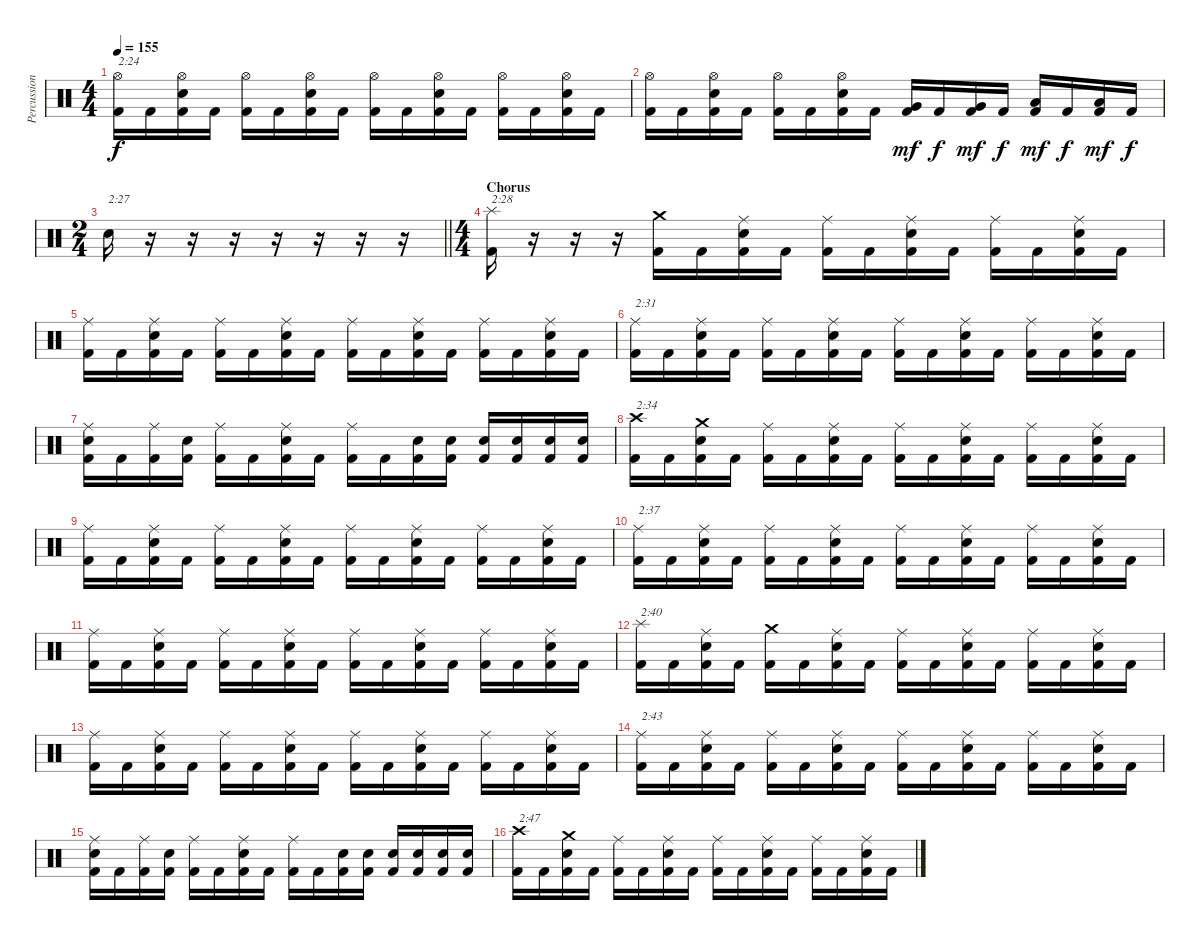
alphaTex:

\track ("Percussion" "Percussion") {instrument percussion}
\staff {score}
\articulation defaults
\ts (4 4)
\tempo 155
\clef neutral
\ks c
("Hi-Hat (open)" "Kick (hit) 2").16{txt "2:24" dy f} "Kick (hit) 2".16 ("Hi-Hat (open)" "Electric Snare (hit)" "Kick (hit) 2").16 "Kick (hit) 2".16 ("Hi-Hat (open)" "Kick (hit) 2").16 "Kick (hit) 2".16 ("Hi-Hat (open)" "Electric Snare (hit)" "Kick (hit) 2").16 "Kick (hit) 2".16 ("Hi-Hat (open)" "Kick (hit) 2").16 "Kick (hit) 2".16 ("Hi-Hat (open)" "Electric Snare (hit)" "Kick (hit) 2").16 "Kick (hit) 2".16 ("Hi-Hat (open)" "Kick (hit) 2").16 "Kick (hit) 2".16 ("Hi-Hat (open)" "Electric Snare (hit)" "Kick (hit) 2").16 "Kick (hit) 2".16 |
("Hi-Hat (open)" "Kick (hit) 2").16 "Kick (hit) 2".16 ("Hi-Hat (open)" "Electric Snare (hit)" "Kick (hit) 2").16 "Kick (hit) 2".16 ("Hi-Hat (open)" "Kick (hit) 2").16 "Kick (hit) 2".16 ("Hi-Hat (open)" "Electric Snare (hit)" "Kick (hit) 2").16 "Kick (hit) 2".16 ("Very Low Tom (hit)" "Kick (hit) 2").16{dy mf} "Kick (hit) 2".16{dy f} ("Very Low Tom (hit)" "Kick (hit) 2").16{dy mf} "Kick (hit) 2".16{dy f} ("Low Floor Tom (hit)" "Kick (hit) 2").16{dy mf} "Kick (hit) 2".16{dy f} ("Low Floor Tom (hit)" "Kick (hit) 2").16{dy mf} "Kick (hit) 2".16{dy f} |
\ts (2 4)
\barLineRight lightlight "Electric Snare (hit)".16{txt "2:27"}
r.16 r.16 r.16 r.16 r.16 r.16 r.16 |
\ts (4 4)
\section ("" "Chorus")
("Splash (hit)" "Kick (hit) 2").16{txt "2:28"} r.16 r.16 r.16 ("Crash medium (hit)" "Kick (hit) 2").16 "Kick (hit) 2".16 ("Ride (middle)" "Electric Snare (hit)" "Kick (hit) 2").16 "Kick (hit) 2".16 ("Ride (middle)" "Kick (hit) 2").16 "Kick (hit) 2".16 ("Ride (middle)" "Electric Snare (hit)" "Kick (hit) 2").16 "Kick (hit) 2".16 ("Ride (middle)" "Kick (hit) 2").16 "Kick (hit) 2".16 ("Ride (middle)" "Electric Snare (hit)" "Kick (hit) 2").16 "Kick (hit) 2".16 |
("Ride (middle)" "Kick (hit) 2").16 "Kick (hit) 2".16 ("Ride (middle)" "Electric Snare (hit)" "Kick (hit) 2").16 "Kick (hit) 2".16 ("Ride (middle)" "Kick (hit) 2").16 "Kick (hit) 2".16 ("Ride (middle)" "Electric Snare (hit)" "Kick (hit) 2").16 "Kick (hit) 2".16 ("Ride (middle)" "Kick (hit) 2").16 "Kick (hit) 2".16 ("Ride (middle)" "Electric Snare (hit)" "Kick (hit) 2").16 "Kick (hit) 2".16 ("Ride (middle)" "Kick (hit) 2").16 "Kick (hit) 2".16 ("Ride (middle)" "Electric Snare (hit)" "Kick (hit) 2").16 "Kick (hit) 2".16 |
("Ride (middle)" "Kick (hit) 2").16{txt "2:31"} "Kick (hit) 2".16 ("Ride (middle)" "Electric Snare (hit)" "Kick (hit) 2").16 "Kick (hit) 2".16 ("Ride (middle)" "Kick (hit) 2").16 "Kick (hit) 2".16 ("Ride (middle)" "Electric Snare (hit)" "Kick (hit) 2").16 "Kick (hit) 2".16 ("Ride (middle)" "Kick (hit) 2").16 "Kick (hit) 2".16 ("Ride (middle)" "Electric Snare (hit)" "Kick (hit) 2").16 "Kick (hit) 2".16 ("Ride (middle)" "Kick (hit) 2").16 "Kick (hit) 2".16 ("Ride (middle)" "Electric Snare (hit)" "Kick (hit) 2").16 "Kick (hit) 2".16 |
("Ride (middle)" "Electric Snare (hit)" "Kick (hit) 2").16 "Kick (hit) 2".16 ("Ride (middle)" "Kick (hit) 2").16 ("Electric Snare (hit)" "Kick (hit) 2").16 ("Ride (middle)" "Kick (hit) 2").16 "Kick (hit) 2".16 ("Ride (middle)" "Electric Snare (hit)" "Kick (hit) 2").16 "Kick (hit) 2".16 ("Ride (middle)" "Kick (hit) 2").16 "Kick (hit) 2".16 ("Electric Snare (hit)" "Kick (hit) 2").16 ("Electric Snare (hit)" "Kick (hit) 2").16 ("Electric Snare (hit)" "Kick (hit) 2").16 ("Electric Snare (hit)" "Kick (hit) 2").16 ("Electric Snare (hit)" "Kick (hit) 2").16 ("Electric Snare (hit)" "Kick (hit) 2").16 |
("Crash high (hit)" "Kick (hit) 2").16{txt "2:34"} "Kick (hit) 2".16 ("Crash medium (hit)" "Electric Snare (hit)" "Kick (hit) 2").16 "Kick (hit) 2".16 ("Ride (middle)" "Kick (hit) 2").16 "Kick (hit) 2".16 ("Ride (middle)" "Electric Snare (hit)" "Kick (hit) 2").16 "Kick (hit) 2".16 ("Ride (middle)" "Kick (hit) 2").16 "Kick (hit) 2".16 ("Ride (middle)" "Electric Snare (hit)" "Kick (hit) 2").16 "Kick (hit) 2".16 ("Ride (middle)" "Kick (hit) 2").16 "Kick (hit) 2".16 ("Ride (middle)" "Electric Snare (hit)" "Kick (hit) 2").16 "Kick (hit) 2".16 |
("Ride (middle)" "Kick (hit) 2").16 "Kick (hit) 2".16 ("Ride (middle)" "Electric Snare (hit)" "Kick (hit) 2").16 "Kick (hit) 2".16 ("Ride (middle)" "Kick (hit) 2").16 "Kick (hit) 2".16 ("Ride (middle)" "Electric Snare (hit)" "Kick (hit) 2").16 "Kick (hit) 2".16 ("Ride (middle)" "Kick (hit) 2").16 "Kick (hit) 2".16 ("Ride (middle)" "Electric Snare (hit)" "Kick (hit) 2").16 "Kick (hit) 2".16 ("Ride (middle)" "Kick (hit) 2").16 "Kick (hit) 2".16 ("Ride (middle)" "Electric Snare (hit)" "Kick (hit) 2").16 "Kick (hit) 2".16 |
("Ride (middle)" "Kick (hit) 2").16{txt "2:37"} "Kick (hit) 2".16 ("Ride (middle)" "Electric Snare (hit)" "Kick (hit) 2").16 "Kick (hit) 2".16 ("Ride (middle)" "Kick (hit) 2").16 "Kick (hit) 2".16 ("Ride (middle)" "Electric Snare (hit)" "Kick (hit) 2").16 "Kick (hit) 2".16 ("Ride (middle)" "Kick (hit) 2").16 "Kick (hit) 2".16 ("Ride (middle)" "Electric Snare (hit)" "Kick (hit) 2").16 "Kick (hit) 2".16 ("Ride (middle)" "Kick (hit) 2").16 "Kick (hit) 2".16 ("Ride (middle)" "Electric Snare (hit)" "Kick (hit) 2").16 "Kick (hit) 2".16 |
("Ride (middle)" "Kick (hit) 2").16 "Kick (hit) 2".16 ("Ride (middle)" "Electric Snare (hit)" "Kick (hit) 2").16 "Kick (hit) 2".16 ("Ride (middle)" "Kick (hit) 2").16 "Kick (hit) 2".16 ("Ride (middle)" "Electric Snare (hit)" "Kick (hit) 2").16 "Kick (hit) 2".16 ("Ride (middle)" "Kick (hit) 2").16 "Kick (hit) 2".16 ("Ride (middle)" "Electric Snare (hit)" "Kick (hit) 2").16 "Kick (hit) 2".16 ("Ride (middle)" "Kick (hit) 2").16 "Kick (hit) 2".16 ("Ride (middle)" "Electric Snare (hit)" "Kick (hit) 2").16 "Kick (hit) 2".16 |
("Splash (hit)" "Kick (hit) 2").16{txt "2:40"} "Kick (hit) 2".16 ("Ride (middle)" "Electric Snare (hit)" "Kick (hit) 2").16 "Kick (hit) 2".16 ("Crash medium (hit)" "Kick (hit) 2").16 "Kick (hit) 2".16 ("Ride (middle)" "Electric Snare (hit)" "Kick (hit) 2").16 "Kick (hit) 2".16 ("Ride (middle)" "Kick (hit) 2").16 "Kick (hit) 2".16 ("Ride (middle)" "Electric Snare (hit)" "Kick (hit) 2").16 "Kick (hit) 2".16 ("Ride (middle)" "Kick (hit) 2").16 "Kick (hit) 2".16 ("Ride (middle)" "Electric Snare (hit)" "Kick (hit) 2").16 "Kick (hit) 2".16 |
("Ride (middle)" "Kick (hit) 2").16 "Kick (hit) 2".16 ("Ride (middle)" "Electric Snare (hit)" "Kick (hit) 2").16 "Kick (hit) 2".16 ("Ride (middle)" "Kick (hit) 2").16 "Kick (hit) 2".16 ("Ride (middle)" "Electric Snare (hit)" "Kick (hit) 2").16 "Kick (hit) 2".16 ("Ride (middle)" "Kick (hit) 2").16 "Kick (hit) 2".16 ("Ride (middle)" "Electric Snare (hit)" "Kick (hit) 2").16 "Kick (hit) 2".16 ("Ride (middle)" "Kick (hit) 2").16 "Kick (hit) 2".16 ("Ride (middle)" "Electric Snare (hit)" "Kick (hit) 2").16 "Kick (hit) 2".16 |
("Ride (middle)" "Kick (hit) 2").16{txt "2:43"} "Kick (hit) 2".16 ("Ride (middle)" "Electric Snare (hit)" "Kick (hit) 2").16 "Kick (hit) 2".16 ("Ride (middle)" "Kick (hit) 2").16 "Kick (hit) 2".16 ("Ride (middle)" "Electric Snare (hit)" "Kick (hit) 2").16 "Kick (hit) 2".16 ("Ride (middle)" "Kick (hit) 2").16 "Kick (hit) 2".16 ("Ride (middle)" "Electric Snare (hit)" "Kick (hit) 2").16 "Kick (hit) 2".16 ("Ride (middle)" "Kick (hit) 2").16 "Kick (hit) 2".16 ("Ride (middle)" "Electric Snare (hit)" "Kick (hit) 2").16 "Kick (hit) 2".16 |
("Ride (middle)" "Electric Snare (hit)" "Kick (hit) 2").16 "Kick (hit) 2".16 ("Ride (middle)" "Kick (hit) 2").16 ("Electric Snare (hit)" "Kick (hit) 2").16 ("Ride (middle)" "Kick (hit) 2").16 "Kick (hit) 2".16 ("Ride (middle)" "Electric Snare (hit)" "Kick (hit) 2").16 "Kick (hit) 2".16 ("Ride (middle)" "Kick (hit) 2").16 "Kick (hit) 2".16 ("Electric Snare (hit)" "Kick (hit) 2").16 ("Electric Snare (hit)" "Kick (hit) 2").16 ("Electric Snare (hit)" "Kick (hit) 2").16 ("Electric Snare (hit)" "Kick (hit) 2").16 ("Electric Snare (hit)" "Kick (hit) 2").16 ("Electric Snare (hit)" "Kick (hit) 2").16 |
("Crash high (hit)" "Kick (hit) 2").16{txt "2:47"} "Kick (hit) 2".16 ("Crash medium (hit)" "Electric Snare (hit)" "Kick (hit) 2").16 "Kick (hit) 2".16 ("Ride (middle)" "Kick (hit) 2").16 "Kick (hit) 2".16 ("Ride (middle)" "Electric Snare (hit)" "Kick (hit) 2").16 "Kick (hit) 2".16 ("Ride (middle)" "Kick (hit) 2").16 "Kick (hit) 2".16 ("Ride (middle)" "Electric Snare (hit)" "Kick (hit) 2").16 "Kick (hit) 2".16 ("Ride (middle)" "Kick (hit) 2").16 "Kick (hit) 2".16 ("Ride (middle)" "Electric Snare (hit)" "Kick (hit) 2").16 "Kick (hit) 2".16
